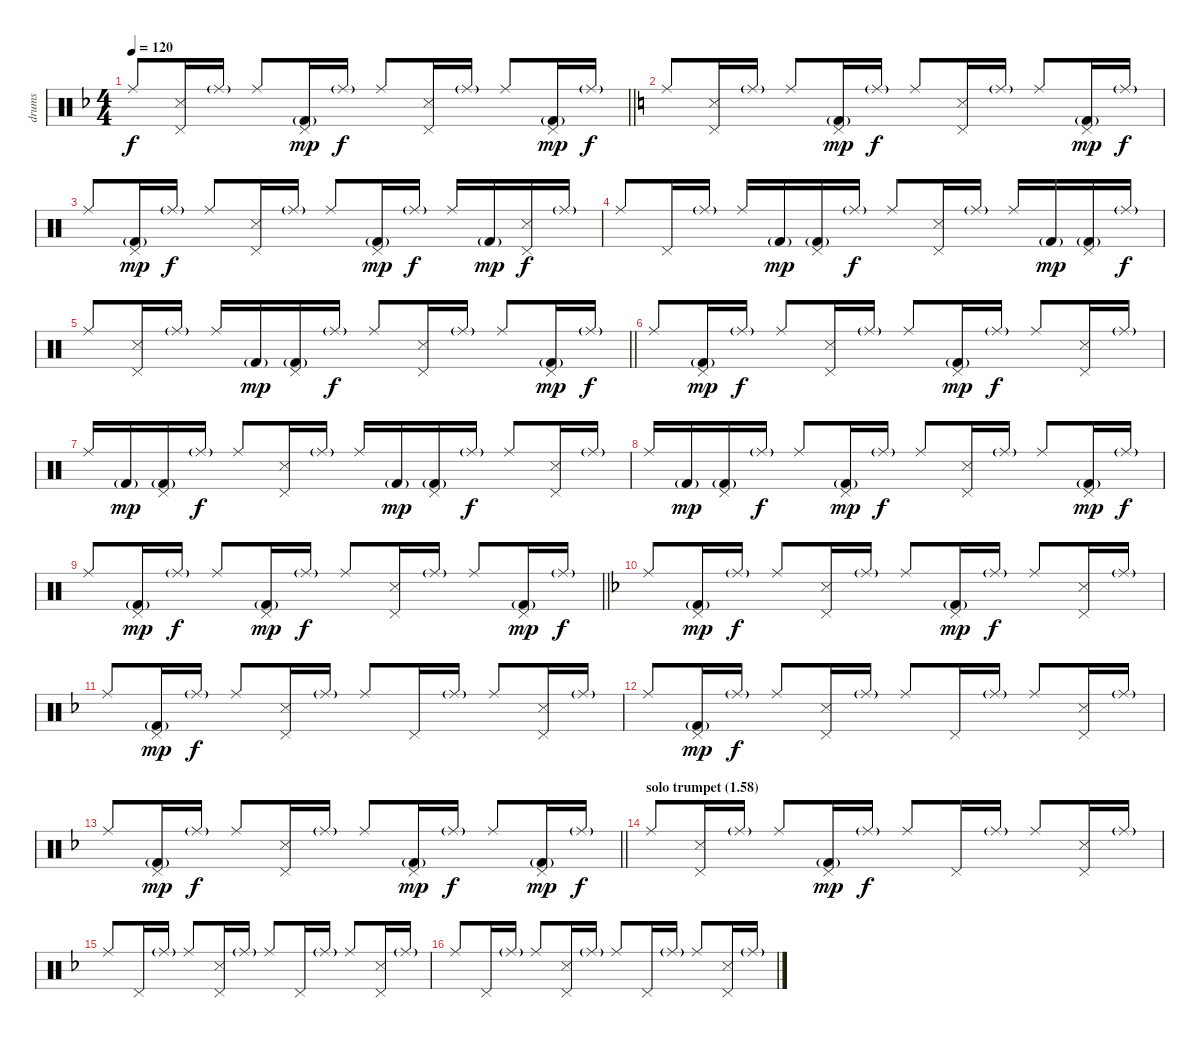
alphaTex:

\track ("drums" "drums") {instrument percussion}
\staff {score}
\articulation defaults
\ts (4 4)
\tempo 120
\clef neutral
\barLineRight lightlight
\ks f "Ride (middle)".8{dy f}
("Pedal Hi-Hat (hit)" "Snare (side stick) 3").16 "Ride (middle)"{g}.16 "Ride (middle)".8 ("Pedal Hi-Hat (hit)" "Kick (hit) 2"{g}).16{dy mp} "Ride (middle)"{g}.16{dy f} "Ride (middle)".8 ("Pedal Hi-Hat (hit)" "Snare (side stick) 3").16 "Ride (middle)"{g}.16 "Ride (middle)".8 ("Pedal Hi-Hat (hit)" "Kick (hit) 2"{g}).16{dy mp} "Ride (middle)"{g}.16{dy f} |
\ks c "Ride (middle)".8
("Pedal Hi-Hat (hit)" "Snare (side stick) 3").16 "Ride (middle)"{g}.16 "Ride (middle)".8 ("Pedal Hi-Hat (hit)" "Kick (hit) 2"{g}).16{dy mp} "Ride (middle)"{g}.16{dy f} "Ride (middle)".8 ("Pedal Hi-Hat (hit)" "Snare (side stick) 3").16 "Ride (middle)"{g}.16 "Ride (middle)".8 ("Pedal Hi-Hat (hit)" "Kick (hit) 2"{g}).16{dy mp} "Ride (middle)"{g}.16{dy f} |
"Ride (middle)".8 ("Pedal Hi-Hat (hit)" "Kick (hit) 2"{g}).16{dy mp} "Ride (middle)"{g}.16{dy f} "Ride (middle)".8 ("Pedal Hi-Hat (hit)" "Snare (side stick) 3").16 "Ride (middle)"{g}.16 "Ride (middle)".8 ("Pedal Hi-Hat (hit)" "Kick (hit) 2"{g}).16{dy mp} "Ride (middle)"{g}.16{dy f} "Ride (middle)".16 "Kick (hit) 2"{g}.16{dy mp} ("Pedal Hi-Hat (hit)" "Snare (side stick) 3").16{dy f} "Ride (middle)"{g}.16 |
"Ride (middle)".8 "Pedal Hi-Hat (hit)".16 "Ride (middle)"{g}.16 "Ride (middle)".16 "Kick (hit) 2"{g}.16{dy mp} ("Pedal Hi-Hat (hit)" "Kick (hit) 2"{g}).16 "Ride (middle)"{g}.16{dy f} "Ride (middle)".8 ("Pedal Hi-Hat (hit)" "Snare (side stick) 3").16 "Ride (middle)"{g}.16 "Ride (middle)".16 "Kick (hit) 2"{g}.16{dy mp} ("Pedal Hi-Hat (hit)" "Kick (hit) 2"{g}).16 "Ride (middle)"{g}.16{dy f} |
\barLineRight lightlight "Ride (middle)".8
("Pedal Hi-Hat (hit)" "Snare (side stick) 3").16 "Ride (middle)"{g}.16 "Ride (middle)".16 "Kick (hit) 2"{g}.16{dy mp} ("Pedal Hi-Hat (hit)" "Kick (hit) 2"{g}).16 "Ride (middle)"{g}.16{dy f} "Ride (middle)".8 ("Pedal Hi-Hat (hit)" "Snare (side stick) 3").16 "Ride (middle)"{g}.16 "Ride (middle)".8 ("Pedal Hi-Hat (hit)" "Kick (hit) 2"{g}).16{dy mp} "Ride (middle)"{g}.16{dy f} |
"Ride (middle)".8 ("Pedal Hi-Hat (hit)" "Kick (hit) 2"{g}).16{dy mp} "Ride (middle)"{g}.16{dy f} "Ride (middle)".8 ("Pedal Hi-Hat (hit)" "Snare (side stick) 3").16 "Ride (middle)"{g}.16 "Ride (middle)".8 ("Pedal Hi-Hat (hit)" "Kick (hit) 2"{g}).16{dy mp} "Ride (middle)"{g}.16{dy f} "Ride (middle)".8 ("Pedal Hi-Hat (hit)" "Snare (side stick) 3").16 "Ride (middle)"{g}.16 |
"Ride (middle)".16 "Kick (hit) 2"{g}.16{dy mp} ("Pedal Hi-Hat (hit)" "Kick (hit) 2"{g}).16 "Ride (middle)"{g}.16{dy f} "Ride (middle)".8 ("Pedal Hi-Hat (hit)" "Snare (side stick) 3").16 "Ride (middle)"{g}.16 "Ride (middle)".16 "Kick (hit) 2"{g}.16{dy mp} ("Pedal Hi-Hat (hit)" "Kick (hit) 2"{g}).16 "Ride (middle)"{g}.16{dy f} "Ride (middle)".8 ("Pedal Hi-Hat (hit)" "Snare (side stick) 3").16 "Ride (middle)"{g}.16 |
"Ride (middle)".16 "Kick (hit) 2"{g}.16{dy mp} ("Pedal Hi-Hat (hit)" "Kick (hit) 2"{g}).16 "Ride (middle)"{g}.16{dy f} "Ride (middle)".8 ("Pedal Hi-Hat (hit)" "Kick (hit) 2"{g}).16{dy mp} "Ride (middle)"{g}.16{dy f} "Ride (middle)".8 ("Pedal Hi-Hat (hit)" "Snare (side stick) 3").16 "Ride (middle)"{g}.16 "Ride (middle)".8 ("Pedal Hi-Hat (hit)" "Kick (hit) 2"{g}).16{dy mp} "Ride (middle)"{g}.16{dy f} |
\barLineRight lightlight "Ride (middle)".8
("Pedal Hi-Hat (hit)" "Kick (hit) 2"{g}).16{dy mp} "Ride (middle)"{g}.16{dy f} "Ride (middle)".8 ("Pedal Hi-Hat (hit)" "Kick (hit) 2"{g}).16{dy mp} "Ride (middle)"{g}.16{dy f} "Ride (middle)".8 ("Pedal Hi-Hat (hit)" "Snare (side stick) 3").16 "Ride (middle)"{g}.16 "Ride (middle)".8 ("Pedal Hi-Hat (hit)" "Kick (hit) 2"{g}).16{dy mp} "Ride (middle)"{g}.16{dy f} |
\ks f "Ride (middle)".8
("Pedal Hi-Hat (hit)" "Kick (hit) 2"{g}).16{dy mp} "Ride (middle)"{g}.16{dy f} "Ride (middle)".8 ("Pedal Hi-Hat (hit)" "Snare (side stick) 3").16 "Ride (middle)"{g}.16 "Ride (middle)".8 ("Pedal Hi-Hat (hit)" "Kick (hit) 2"{g}).16{dy mp} "Ride (middle)"{g}.16{dy f} "Ride (middle)".8 ("Pedal Hi-Hat (hit)" "Snare (side stick) 3").16 "Ride (middle)"{g}.16 |
"Ride (middle)".8 ("Pedal Hi-Hat (hit)" "Kick (hit) 2"{g}).16{dy mp} "Ride (middle)"{g}.16{dy f} "Ride (middle)".8 ("Pedal Hi-Hat (hit)" "Snare (side stick) 3").16 "Ride (middle)"{g}.16 "Ride (middle)".8 "Pedal Hi-Hat (hit)".16 "Ride (middle)"{g}.16 "Ride (middle)".8 ("Pedal Hi-Hat (hit)" "Snare (side stick) 3").16 "Ride (middle)"{g}.16 |
"Ride (middle)".8 ("Pedal Hi-Hat (hit)" "Kick (hit) 2"{g}).16{dy mp} "Ride (middle)"{g}.16{dy f} "Ride (middle)".8 ("Pedal Hi-Hat (hit)" "Snare (side stick) 3").16 "Ride (middle)"{g}.16 "Ride (middle)".8 "Pedal Hi-Hat (hit)".16 "Ride (middle)"{g}.16 "Ride (middle)".8 ("Pedal Hi-Hat (hit)" "Snare (side stick) 3").16 "Ride (middle)"{g}.16 |
\barLineRight lightlight "Ride (middle)".8
("Pedal Hi-Hat (hit)" "Kick (hit) 2"{g}).16{dy mp} "Ride (middle)"{g}.16{dy f} "Ride (middle)".8 ("Pedal Hi-Hat (hit)" "Snare (side stick) 3").16 "Ride (middle)"{g}.16 "Ride (middle)".8 ("Pedal Hi-Hat (hit)" "Kick (hit) 2"{g}).16{dy mp} "Ride (middle)"{g}.16{dy f} "Ride (middle)".8 ("Pedal Hi-Hat (hit)" "Kick (hit) 2"{g}).16{dy mp} "Ride (middle)"{g}.16{dy f} |
\section ("" "solo trumpet (1.58)")
"Ride (middle)".8 ("Pedal Hi-Hat (hit)" "Snare (side stick) 3").16 "Ride (middle)"{g}.16 "Ride (middle)".8 ("Pedal Hi-Hat (hit)" "Kick (hit) 2"{g}).16{dy mp} "Ride (middle)"{g}.16{dy f} "Ride (middle)".8 "Pedal Hi-Hat (hit)".16 "Ride (middle)"{g}.16 "Ride (middle)".8 ("Pedal Hi-Hat (hit)" "Snare (side stick) 3").16 "Ride (middle)"{g}.16 |
"Ride (middle)".8 "Pedal Hi-Hat (hit)".16 "Ride (middle)"{g}.16 "Ride (middle)".8 ("Pedal Hi-Hat (hit)" "Snare (side stick) 3").16 "Ride (middle)"{g}.16 "Ride (middle)".8 "Pedal Hi-Hat (hit)".16 "Ride (middle)"{g}.16 "Ride (middle)".8 ("Pedal Hi-Hat (hit)" "Snare (side stick) 3").16 "Ride (middle)"{g}.16 |
"Ride (middle)".8 "Pedal Hi-Hat (hit)".16 "Ride (middle)"{g}.16 "Ride (middle)".8 ("Pedal Hi-Hat (hit)" "Snare (side stick) 3").16 "Ride (middle)"{g}.16 "Ride (middle)".8 "Pedal Hi-Hat (hit)".16 "Ride (middle)"{g}.16 "Ride (middle)".8 ("Pedal Hi-Hat (hit)" "Snare (side stick) 3").16 "Ride (middle)"{g}.16
